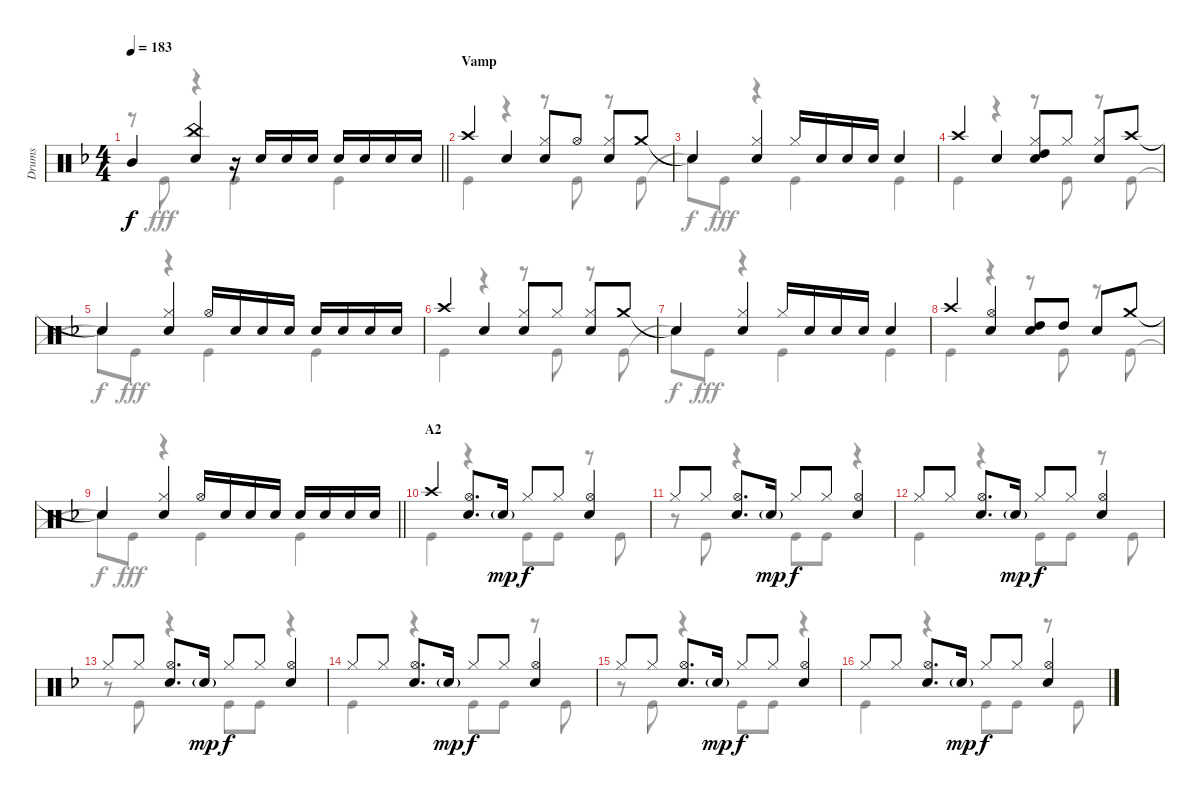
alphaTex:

\track ("Drums" "Drums") {instrument percussion}
\staff {score}
\articulation defaults
\voice
\ts (4 4)
\tempo 183
\clef neutral
\barLineRight lightlight
\ks f "Mid Tom (hit)".4{dy f}
("China (hit)" "Snare (hit) 2").4 r.16 "Snare (hit) 2".16 "Snare (hit) 2".16 "Snare (hit) 2".16 "Snare (hit) 2".16 "Snare (hit) 2".16 "Snare (hit) 2".16 "Snare (hit) 2".16 |
\section ("" "Vamp")
"Crash high (hit)".4 "Snare (hit) 2".4 ("Hi-Hat (closed)" "Snare (hit) 2").8 "Hi-Hat (open)".8 ("Hi-Hat (closed)" "Snare (hit) 2").8 "Crash medium (hit)".8 |
"Snare (hit)"{t}.4 ("Hi-Hat (closed)" "Snare (hit) 2").4 "Hi-Hat (closed)".16 "Snare (hit) 2".16 "Snare (hit) 2".16 "Snare (hit) 2".16 "Snare (hit) 2".4 |
"Crash high (hit)".4 "Snare (hit) 2".4 ("Hi-Hat (closed)" "High Tom (hit)" "Snare (hit) 2").8 "Hi-Hat (closed)".8 ("Hi-Hat (closed)" "Snare (hit) 2").8 "Crash high (hit)".8 |
"Snare (hit)"{t}.4 ("Hi-Hat (closed)" "Snare (hit) 2").4 "Hi-Hat (open)".16 "Snare (hit) 2".16 "Snare (hit) 2".16 "Snare (hit) 2".16 "Snare (hit) 2".16 "Snare (hit) 2".16 "Snare (hit) 2".16 "Snare (hit) 2".16 |
"Crash high (hit)".4 "Snare (hit) 2".4 ("Hi-Hat (closed)" "Snare (hit) 2").8 "Hi-Hat (closed)".8 ("Hi-Hat (closed)" "Snare (hit) 2").8 "Crash medium (hit)".8 |
"Snare (hit)"{t}.4 ("Hi-Hat (closed)" "Snare (hit) 2").4 "Hi-Hat (closed)".16 "Snare (hit) 2".16 "Snare (hit) 2".16 "Snare (hit) 2".16 "Snare (hit) 2".4 |
"Crash high (hit)".4 ("Hi-Hat (open)" "Snare (hit) 2").4 ("High Tom (hit)" "Snare (hit) 2").8 "High Tom (hit)".8 "Snare (hit) 2".8 "Crash medium (hit)".8 |
\barLineRight lightlight "Snare (hit)"{t}.4
("Hi-Hat (closed)" "Snare (hit) 2").4 "Hi-Hat (open)".16 "Snare (hit) 2".16 "Snare (hit) 2".16 "Snare (hit) 2".16 "Snare (hit) 2".16 "Snare (hit) 2".16 "Snare (hit) 2".16 "Snare (hit) 2".16 |
\section ("" "A2")
"Crash high (hit)".4 ("Hi-Hat (open)" "Snare (hit) 2").8{d} "Snare (hit) 2"{g}.16{dy mp} "Hi-Hat (closed)".8{dy f} "Hi-Hat (closed)".8 ("Hi-Hat (open)" "Snare (hit) 2").4 |
"Hi-Hat (closed)".8 "Hi-Hat (closed)".8 ("Hi-Hat (open)" "Snare (hit) 2").8{d} "Snare (hit) 2"{g}.16{dy mp} "Hi-Hat (closed)".8{dy f} "Hi-Hat (closed)".8 ("Hi-Hat (open)" "Snare (hit) 2").4 |
"Hi-Hat (closed)".8 "Hi-Hat (closed)".8 ("Hi-Hat (open)" "Snare (hit) 2").8{d} "Snare (hit) 2"{g}.16{dy mp} "Hi-Hat (closed)".8{dy f} "Hi-Hat (closed)".8 ("Hi-Hat (open)" "Snare (hit) 2").4 |
"Hi-Hat (closed)".8 "Hi-Hat (closed)".8 ("Hi-Hat (open)" "Snare (hit) 2").8{d} "Snare (hit) 2"{g}.16{dy mp} "Hi-Hat (closed)".8{dy f} "Hi-Hat (closed)".8 ("Hi-Hat (open)" "Snare (hit) 2").4 |
"Hi-Hat (closed)".8 "Hi-Hat (closed)".8 ("Hi-Hat (open)" "Snare (hit) 2").8{d} "Snare (hit) 2"{g}.16{dy mp} "Hi-Hat (closed)".8{dy f} "Hi-Hat (closed)".8 ("Hi-Hat (open)" "Snare (hit) 2").4 |
"Hi-Hat (closed)".8 "Hi-Hat (closed)".8 ("Hi-Hat (open)" "Snare (hit) 2").8{d} "Snare (hit) 2"{g}.16{dy mp} "Hi-Hat (closed)".8{dy f} "Hi-Hat (closed)".8 ("Hi-Hat (open)" "Snare (hit) 2").4 |
"Hi-Hat (closed)".8 "Hi-Hat (closed)".8 ("Hi-Hat (open)" "Snare (hit) 2").8{d} "Snare (hit) 2"{g}.16{dy mp} "Hi-Hat (closed)".8{dy f} "Hi-Hat (closed)".8 ("Hi-Hat (open)" "Snare (hit) 2").4
\voice
\clef neutral
\ottava regular
\simile none
\barLineRight lightlight
\ks f
r.8{dy fff} "Kick (hit)".8 r.4 "Kick (hit)".4 "Kick (hit)".4 |
"Kick (hit)".4 r.4 r.8 "Kick (hit)".8 r.8 "Kick (hit)".8 |
"Snare (hit)"{t}.8{dy f} "Kick (hit)".8{dy fff} r.4 "Kick (hit)".4 "Kick (hit)".4 |
"Kick (hit)".4 r.4 r.8 "Kick (hit)".8 r.8 "Kick (hit)".8 |
"Snare (hit)"{t}.8{dy f} "Kick (hit)".8{dy fff} r.4 "Kick (hit)".4 "Kick (hit)".4 |
"Kick (hit)".4 r.4 r.8 "Kick (hit)".8 r.8 "Kick (hit)".8 |
"Snare (hit)"{t}.8{dy f} "Kick (hit)".8{dy fff} r.4 "Kick (hit)".4 "Kick (hit)".4 |
"Kick (hit)".4 r.4 r.8 "Kick (hit)".8 r.8 "Kick (hit)".8 |
\barLineRight lightlight "Snare (hit)"{t}.8{dy f} "Kick (hit)".8{dy fff}
r.4 "Kick (hit)".4 "Kick (hit)".4 |
"Kick (hit)".4 r.4 "Kick (hit)".8 "Kick (hit)".8 r.8 "Kick (hit)".8 |
r.8 "Kick (hit)".8 r.4 "Kick (hit)".8 "Kick (hit)".8 r.4 |
"Kick (hit)".4 r.4 "Kick (hit)".8 "Kick (hit)".8 r.8 "Kick (hit)".8 |
r.8 "Kick (hit)".8 r.4 "Kick (hit)".8 "Kick (hit)".8 r.4 |
"Kick (hit)".4 r.4 "Kick (hit)".8 "Kick (hit)".8 r.8 "Kick (hit)".8 |
r.8 "Kick (hit)".8 r.4 "Kick (hit)".8 "Kick (hit)".8 r.4 |
"Kick (hit)".4 r.4 "Kick (hit)".8 "Kick (hit)".8 r.8 "Kick (hit)".8
